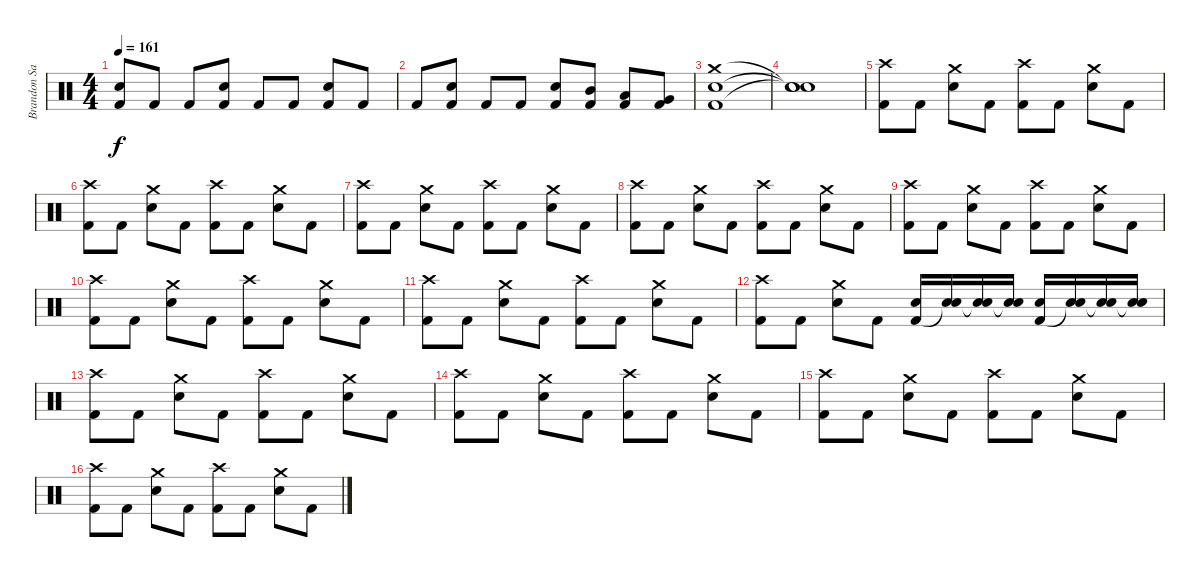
\track ("Brandon Saller" "Brandon Sa") {instrument percussion}
\staff {score}
\articulation defaults
\ts (4 4)
\tempo 161
\clef neutral
\ks c
("Electric Snare (hit)" "Kick (hit) 2").8{dy f} "Kick (hit) 2".8 "Kick (hit) 2".8 ("Snare (hit) 2" "Kick (hit) 2").8 "Kick (hit) 2".8 "Kick (hit) 2".8 ("Electric Snare (hit)" "Kick (hit) 2").8 "Kick (hit) 2".8 |
"Kick (hit) 2".8 ("Snare (hit) 2" "Kick (hit) 2").8 "Kick (hit) 2".8 "Kick (hit) 2".8 ("Snare (hit) 2" "Kick (hit) 2").8 ("Mid Tom (hit)" "Kick (hit) 2").8 ("Low Tom (hit)" "Kick (hit) 2").8 ("Very Low Tom (hit)" "Kick (hit) 2").8 |
("Kick (hit) 2" "Snare (hit) 2" "Crash medium (hit)").1 |
("Snare (hit)"{t} "Snare (hit)"{t} "Snare (hit)"{t}).1 |
("Crash high (hit)" "Kick (hit) 2").8 "Kick (hit) 2".8 ("Crash medium (hit)" "Electric Snare (hit)").8 "Kick (hit) 2".8 ("Crash high (hit)" "Kick (hit) 2").8 "Kick (hit) 2".8 ("Crash medium (hit)" "Electric Snare (hit)").8 "Kick (hit) 2".8 |
("Crash high (hit)" "Kick (hit) 2").8 "Kick (hit) 2".8 ("Crash medium (hit)" "Electric Snare (hit)").8 "Kick (hit) 2".8 ("Crash high (hit)" "Kick (hit) 2").8 "Kick (hit) 2".8 ("Crash medium (hit)" "Electric Snare (hit)").8 "Kick (hit) 2".8 |
("Crash high (hit)" "Kick (hit) 2").8 "Kick (hit) 2".8 ("Crash medium (hit)" "Electric Snare (hit)").8 "Kick (hit) 2".8 ("Crash high (hit)" "Kick (hit) 2").8 "Kick (hit) 2".8 ("Crash medium (hit)" "Electric Snare (hit)").8 "Kick (hit) 2".8 |
("Crash high (hit)" "Kick (hit) 2").8 "Kick (hit) 2".8 ("Crash medium (hit)" "Electric Snare (hit)").8 "Kick (hit) 2".8 ("Crash high (hit)" "Kick (hit) 2").8 "Kick (hit) 2".8 ("Crash medium (hit)" "Electric Snare (hit)").8 "Kick (hit) 2".8 |
("Crash high (hit)" "Kick (hit) 2").8 "Kick (hit) 2".8 ("Crash medium (hit)" "Electric Snare (hit)").8 "Kick (hit) 2".8 ("Crash high (hit)" "Kick (hit) 2").8 "Kick (hit) 2".8 ("Crash medium (hit)" "Electric Snare (hit)").8 "Kick (hit) 2".8 |
("Crash high (hit)" "Kick (hit) 2").8 "Kick (hit) 2".8 ("Crash medium (hit)" "Electric Snare (hit)").8 "Kick (hit) 2".8 ("Crash high (hit)" "Kick (hit) 2").8 "Kick (hit) 2".8 ("Crash medium (hit)" "Electric Snare (hit)").8 "Kick (hit) 2".8 |
("Crash high (hit)" "Kick (hit) 2").8 "Kick (hit) 2".8 ("Crash medium (hit)" "Electric Snare (hit)").8 "Kick (hit) 2".8 ("Crash high (hit)" "Kick (hit) 2").8 "Kick (hit) 2".8 ("Crash medium (hit)" "Electric Snare (hit)").8 "Kick (hit) 2".8 |
("Crash high (hit)" "Kick (hit) 2").8 "Kick (hit) 2".8 ("Crash medium (hit)" "Electric Snare (hit)").8 "Kick (hit) 2".8 ("Snare (hit) 2" "Kick (hit) 2").16 ("Snare (hit) 2" "Snare (hit)"{t}).16 ("Snare (hit) 2" "Snare (hit)"{t}).16 ("Snare (hit) 2" "Snare (hit)"{t}).16 ("Snare (hit) 2" "Kick (hit) 2").16 ("Snare (hit) 2" "Snare (hit)"{t}).16 ("Snare (hit) 2" "Snare (hit)"{t}).16 ("Snare (hit) 2" "Snare (hit)"{t}).16 |
("Crash high (hit)" "Kick (hit) 2").8 "Kick (hit) 2".8 ("Crash medium (hit)" "Electric Snare (hit)").8 "Kick (hit) 2".8 ("Crash high (hit)" "Kick (hit) 2").8 "Kick (hit) 2".8 ("Crash medium (hit)" "Electric Snare (hit)").8 "Kick (hit) 2".8 |
("Crash high (hit)" "Kick (hit) 2").8 "Kick (hit) 2".8 ("Crash medium (hit)" "Electric Snare (hit)").8 "Kick (hit) 2".8 ("Crash high (hit)" "Kick (hit) 2").8 "Kick (hit) 2".8 ("Crash medium (hit)" "Electric Snare (hit)").8 "Kick (hit) 2".8 |
("Crash high (hit)" "Kick (hit) 2").8 "Kick (hit) 2".8 ("Crash medium (hit)" "Electric Snare (hit)").8 "Kick (hit) 2".8 ("Crash high (hit)" "Kick (hit) 2").8 "Kick (hit) 2".8 ("Crash medium (hit)" "Electric Snare (hit)").8 "Kick (hit) 2".8 |
("Crash high (hit)" "Kick (hit) 2").8 "Kick (hit) 2".8 ("Crash medium (hit)" "Electric Snare (hit)").8 "Kick (hit) 2".8 ("Crash high (hit)" "Kick (hit) 2").8 "Kick (hit) 2".8 ("Crash medium (hit)" "Electric Snare (hit)").8 "Kick (hit) 2".8
